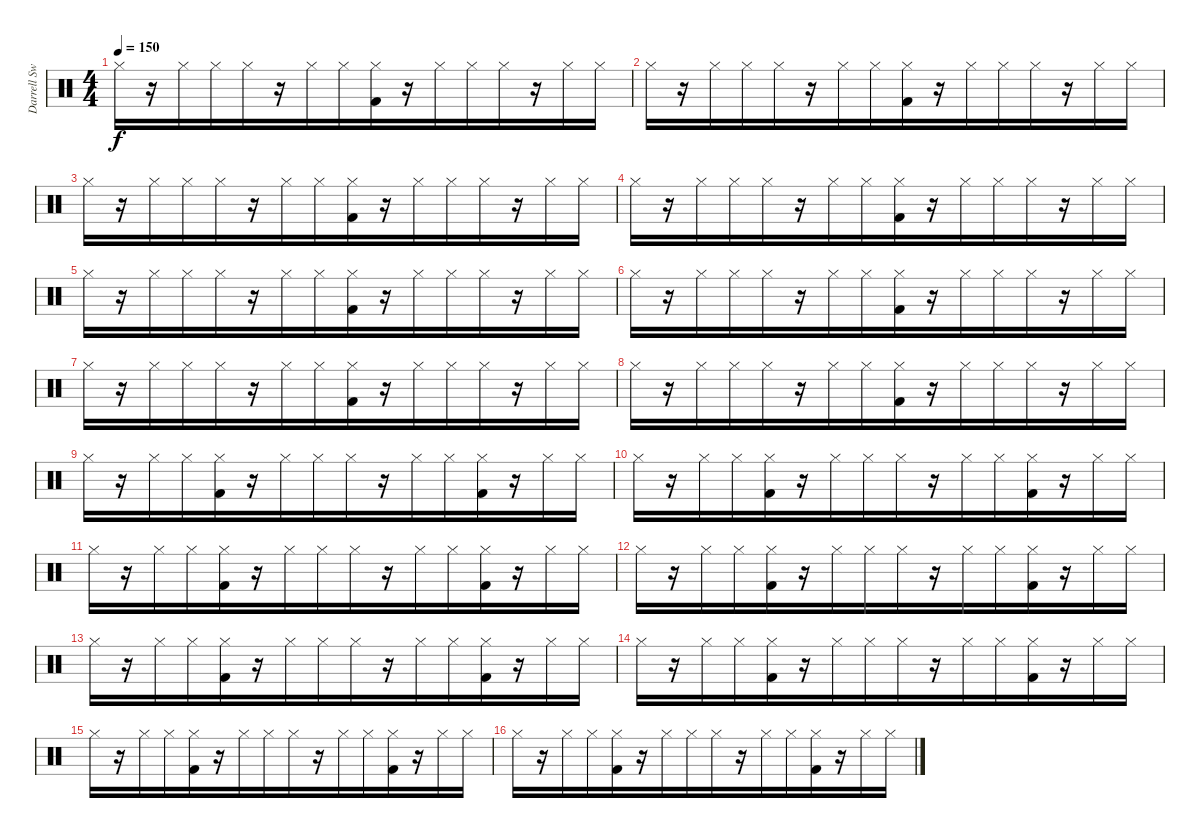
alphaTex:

\track ("Darrell Sweet (drums)" "Darrell Sw") {instrument percussion}
\staff {score}
\articulation defaults
\ts (4 4)
\tempo 150
\clef neutral
\ks c "Hi-Hat (closed)".16{dy f}
r.16 "Hi-Hat (closed)".16 "Hi-Hat (closed)".16{beam merge} "Hi-Hat (closed)".16 r.16 "Hi-Hat (closed)".16 "Hi-Hat (closed)".16{beam merge} ("Hi-Hat (closed)" "Kick (hit) 2").16 r.16 "Hi-Hat (closed)".16 "Hi-Hat (closed)".16{beam merge} "Hi-Hat (closed)".16 r.16 "Hi-Hat (closed)".16 "Hi-Hat (closed)".16 |
"Hi-Hat (closed)".16 r.16 "Hi-Hat (closed)".16 "Hi-Hat (closed)".16{beam merge} "Hi-Hat (closed)".16 r.16 "Hi-Hat (closed)".16 "Hi-Hat (closed)".16{beam merge} ("Hi-Hat (closed)" "Kick (hit) 2").16 r.16 "Hi-Hat (closed)".16 "Hi-Hat (closed)".16{beam merge} "Hi-Hat (closed)".16 r.16 "Hi-Hat (closed)".16 "Hi-Hat (closed)".16 |
"Hi-Hat (closed)".16 r.16 "Hi-Hat (closed)".16 "Hi-Hat (closed)".16{beam merge} "Hi-Hat (closed)".16 r.16 "Hi-Hat (closed)".16 "Hi-Hat (closed)".16{beam merge} ("Hi-Hat (closed)" "Kick (hit) 2").16 r.16 "Hi-Hat (closed)".16 "Hi-Hat (closed)".16{beam merge} "Hi-Hat (closed)".16 r.16 "Hi-Hat (closed)".16 "Hi-Hat (closed)".16 |
"Hi-Hat (closed)".16 r.16 "Hi-Hat (closed)".16 "Hi-Hat (closed)".16{beam merge} "Hi-Hat (closed)".16 r.16 "Hi-Hat (closed)".16 "Hi-Hat (closed)".16{beam merge} ("Hi-Hat (closed)" "Kick (hit) 2").16 r.16 "Hi-Hat (closed)".16 "Hi-Hat (closed)".16{beam merge} "Hi-Hat (closed)".16 r.16 "Hi-Hat (closed)".16 "Hi-Hat (closed)".16 |
"Hi-Hat (closed)".16 r.16 "Hi-Hat (closed)".16 "Hi-Hat (closed)".16{beam merge} "Hi-Hat (closed)".16 r.16 "Hi-Hat (closed)".16 "Hi-Hat (closed)".16{beam merge} ("Hi-Hat (closed)" "Kick (hit) 2").16 r.16 "Hi-Hat (closed)".16 "Hi-Hat (closed)".16{beam merge} "Hi-Hat (closed)".16 r.16 "Hi-Hat (closed)".16 "Hi-Hat (closed)".16 |
"Hi-Hat (closed)".16 r.16 "Hi-Hat (closed)".16 "Hi-Hat (closed)".16{beam merge} "Hi-Hat (closed)".16 r.16 "Hi-Hat (closed)".16 "Hi-Hat (closed)".16{beam merge} ("Hi-Hat (closed)" "Kick (hit) 2").16 r.16 "Hi-Hat (closed)".16 "Hi-Hat (closed)".16{beam merge} "Hi-Hat (closed)".16 r.16 "Hi-Hat (closed)".16 "Hi-Hat (closed)".16 |
"Hi-Hat (closed)".16 r.16 "Hi-Hat (closed)".16 "Hi-Hat (closed)".16{beam merge} "Hi-Hat (closed)".16 r.16 "Hi-Hat (closed)".16 "Hi-Hat (closed)".16{beam merge} ("Hi-Hat (closed)" "Kick (hit) 2").16 r.16 "Hi-Hat (closed)".16 "Hi-Hat (closed)".16{beam merge} "Hi-Hat (closed)".16 r.16 "Hi-Hat (closed)".16 "Hi-Hat (closed)".16 |
"Hi-Hat (closed)".16 r.16 "Hi-Hat (closed)".16 "Hi-Hat (closed)".16{beam merge} "Hi-Hat (closed)".16 r.16 "Hi-Hat (closed)".16 "Hi-Hat (closed)".16{beam merge} ("Hi-Hat (closed)" "Kick (hit) 2").16 r.16 "Hi-Hat (closed)".16 "Hi-Hat (closed)".16{beam merge} "Hi-Hat (closed)".16 r.16 "Hi-Hat (closed)".16 "Hi-Hat (closed)".16 |
"Hi-Hat (closed)".16 r.16 "Hi-Hat (closed)".16 "Hi-Hat (closed)".16{beam merge} ("Hi-Hat (closed)" "Kick (hit) 2").16 r.16 "Hi-Hat (closed)".16 "Hi-Hat (closed)".16{beam merge} "Hi-Hat (closed)".16 r.16 "Hi-Hat (closed)".16 "Hi-Hat (closed)".16{beam merge} ("Hi-Hat (closed)" "Kick (hit) 2").16 r.16 "Hi-Hat (closed)".16 "Hi-Hat (closed)".16 |
"Hi-Hat (closed)".16 r.16 "Hi-Hat (closed)".16 "Hi-Hat (closed)".16{beam merge} ("Hi-Hat (closed)" "Kick (hit) 2").16 r.16 "Hi-Hat (closed)".16 "Hi-Hat (closed)".16{beam merge} "Hi-Hat (closed)".16 r.16 "Hi-Hat (closed)".16 "Hi-Hat (closed)".16{beam merge} ("Hi-Hat (closed)" "Kick (hit) 2").16 r.16 "Hi-Hat (closed)".16 "Hi-Hat (closed)".16 |
"Hi-Hat (closed)".16 r.16 "Hi-Hat (closed)".16 "Hi-Hat (closed)".16{beam merge} ("Hi-Hat (closed)" "Kick (hit) 2").16 r.16 "Hi-Hat (closed)".16 "Hi-Hat (closed)".16{beam merge} "Hi-Hat (closed)".16 r.16 "Hi-Hat (closed)".16 "Hi-Hat (closed)".16{beam merge} ("Hi-Hat (closed)" "Kick (hit) 2").16 r.16 "Hi-Hat (closed)".16 "Hi-Hat (closed)".16 |
"Hi-Hat (closed)".16 r.16 "Hi-Hat (closed)".16 "Hi-Hat (closed)".16{beam merge} ("Hi-Hat (closed)" "Kick (hit) 2").16 r.16 "Hi-Hat (closed)".16 "Hi-Hat (closed)".16{beam merge} "Hi-Hat (closed)".16 r.16 "Hi-Hat (closed)".16 "Hi-Hat (closed)".16{beam merge} ("Hi-Hat (closed)" "Kick (hit) 2").16 r.16 "Hi-Hat (closed)".16 "Hi-Hat (closed)".16 |
"Hi-Hat (closed)".16 r.16 "Hi-Hat (closed)".16 "Hi-Hat (closed)".16{beam merge} ("Hi-Hat (closed)" "Kick (hit) 2").16 r.16 "Hi-Hat (closed)".16 "Hi-Hat (closed)".16{beam merge} "Hi-Hat (closed)".16 r.16 "Hi-Hat (closed)".16 "Hi-Hat (closed)".16{beam merge} ("Hi-Hat (closed)" "Kick (hit) 2").16 r.16 "Hi-Hat (closed)".16 "Hi-Hat (closed)".16 |
"Hi-Hat (closed)".16 r.16 "Hi-Hat (closed)".16 "Hi-Hat (closed)".16{beam merge} ("Hi-Hat (closed)" "Kick (hit) 2").16 r.16 "Hi-Hat (closed)".16 "Hi-Hat (closed)".16{beam merge} "Hi-Hat (closed)".16 r.16 "Hi-Hat (closed)".16 "Hi-Hat (closed)".16{beam merge} ("Hi-Hat (closed)" "Kick (hit) 2").16 r.16 "Hi-Hat (closed)".16 "Hi-Hat (closed)".16 |
"Hi-Hat (closed)".16 r.16 "Hi-Hat (closed)".16 "Hi-Hat (closed)".16{beam merge} ("Hi-Hat (closed)" "Kick (hit) 2").16 r.16 "Hi-Hat (closed)".16 "Hi-Hat (closed)".16{beam merge} "Hi-Hat (closed)".16 r.16 "Hi-Hat (closed)".16 "Hi-Hat (closed)".16{beam merge} ("Hi-Hat (closed)" "Kick (hit) 2").16 r.16 "Hi-Hat (closed)".16 "Hi-Hat (closed)".16 |
"Hi-Hat (closed)".16 r.16 "Hi-Hat (closed)".16 "Hi-Hat (closed)".16{beam merge} ("Hi-Hat (closed)" "Kick (hit) 2").16 r.16 "Hi-Hat (closed)".16 "Hi-Hat (closed)".16{beam merge} "Hi-Hat (closed)".16 r.16 "Hi-Hat (closed)".16 "Hi-Hat (closed)".16{beam merge} ("Hi-Hat (closed)" "Kick (hit) 2").16 r.16 "Hi-Hat (closed)".16 "Hi-Hat (closed)".16
